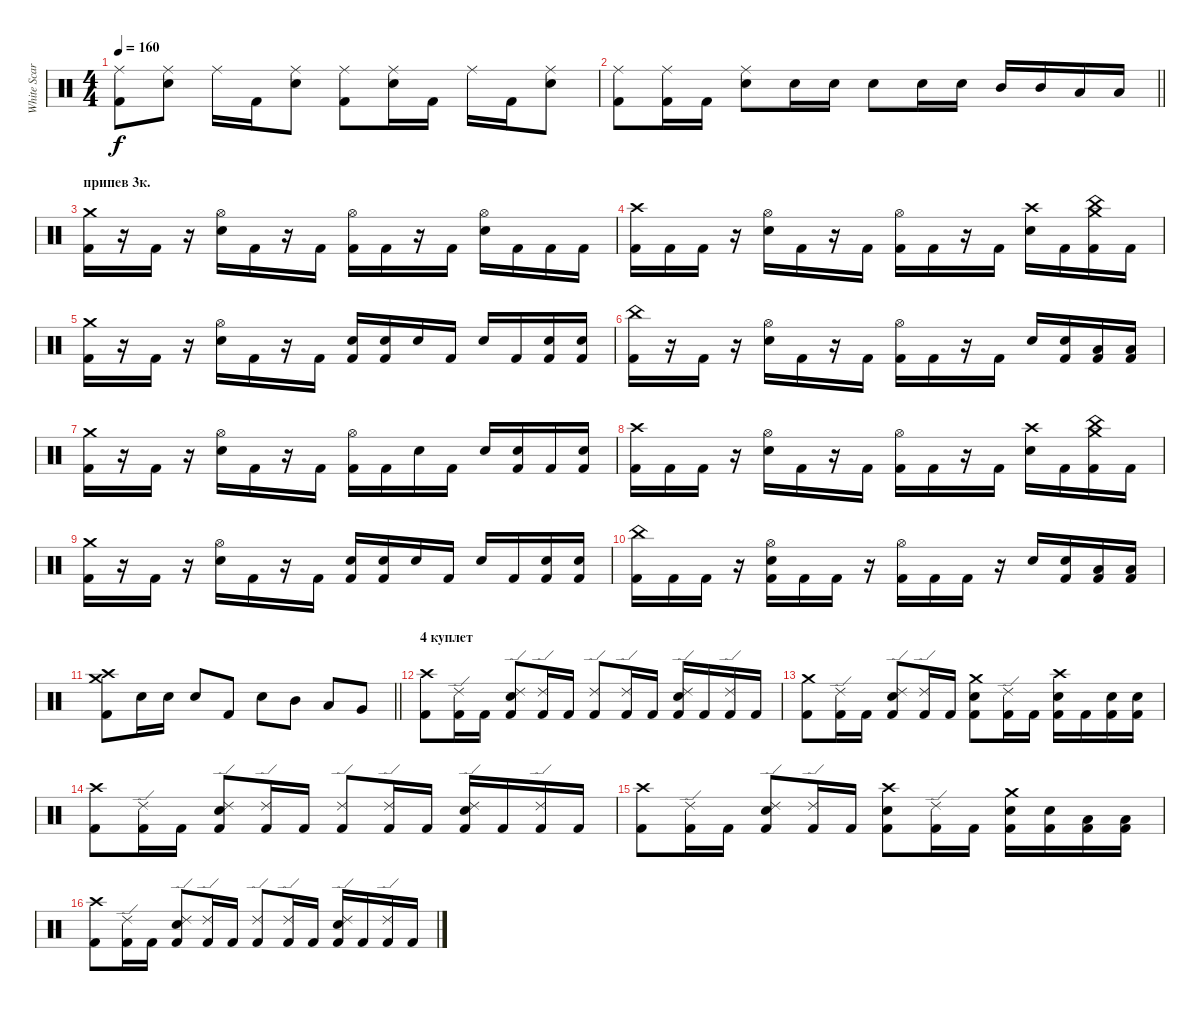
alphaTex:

\track ("White Scar" "White Scar") {instrument percussion}
\staff {score}
\articulation defaults
\ts (4 4)
\tempo 160
\clef neutral
\ks c
("Ride (middle)" "Kick (hit) 2").8{dy f} ("Ride (middle)" "Snare (hit) 2").8 "Ride (middle)".16 "Kick (hit) 2".16 ("Ride (middle)" "Snare (hit) 2").8 ("Ride (middle)" "Kick (hit) 2").8 ("Ride (middle)" "Snare (hit) 2").16 "Kick (hit) 2".16 "Ride (middle)".16 "Kick (hit) 2".16 ("Ride (middle)" "Snare (hit) 2").8 |
\barLineRight lightlight
("Ride (middle)" "Kick (hit) 2").8 ("Ride (middle)" "Kick (hit) 2").16 "Kick (hit) 2".16 ("Ride (middle)" "Snare (hit) 2").8 "Snare (hit) 2".16 "Snare (hit) 2".16 "Snare (hit) 2".8 "Snare (hit) 2".16 "Snare (hit) 2".16 "Mid Tom (hit)".16 "Mid Tom (hit)".16 "Low Tom (hit)".16 "Low Tom (hit)".16 |
\section ("" "припев 3к.")
("Crash medium (hit)" "Kick (hit) 2").16 r.16 "Kick (hit) 2".16 r.16 ("Hi-Hat (open)" "Snare (hit) 2").16 "Kick (hit) 2".16 r.16 "Kick (hit) 2".16 ("Hi-Hat (open)" "Kick (hit) 2").16 "Kick (hit) 2".16 r.16 "Kick (hit) 2".16 ("Hi-Hat (open)" "Snare (hit) 2").16 "Kick (hit) 2".16 "Kick (hit) 2".16 "Kick (hit) 2".16 |
("Crash high (hit)" "Kick (hit) 2").16 "Kick (hit) 2".16 "Kick (hit) 2".16 r.16 ("Hi-Hat (open)" "Snare (hit) 2").16 "Kick (hit) 2".16 r.16 "Kick (hit) 2".16 ("Hi-Hat (open)" "Kick (hit) 2").16 "Kick (hit) 2".16 r.16 "Kick (hit) 2".16 ("Crash high (hit)" "Snare (hit) 2").16 "Kick (hit) 2".16 ("China (hit)" "Crash medium (hit)" "Kick (hit) 2").16 "Kick (hit) 2".16 |
("Crash medium (hit)" "Kick (hit) 2").16 r.16 "Kick (hit) 2".16 r.16 ("Hi-Hat (open)" "Snare (hit) 2").16 "Kick (hit) 2".16 r.16 "Kick (hit) 2".16 ("Snare (hit) 2" "Kick (hit) 2").16 ("Snare (hit) 2" "Kick (hit) 2").16 "Snare (hit) 2".16 "Kick (hit) 2".16 "Snare (hit) 2".16 "Kick (hit) 2".16 ("Snare (hit) 2" "Kick (hit) 2").16 ("Snare (hit) 2" "Kick (hit) 2").16 |
("China (hit)" "Kick (hit) 2").16 r.16 "Kick (hit) 2".16 r.16 ("Hi-Hat (open)" "Snare (hit) 2").16 "Kick (hit) 2".16 r.16 "Kick (hit) 2".16 ("Hi-Hat (open)" "Kick (hit) 2").16 "Kick (hit) 2".16 r.16 "Kick (hit) 2".16 "Snare (hit) 2".16 ("Snare (hit) 2" "Kick (hit) 2").16 ("Low Tom (hit)" "Kick (hit) 2").16 ("Low Tom (hit)" "Kick (hit) 2").16 |
("Crash medium (hit)" "Kick (hit) 2").16 r.16 "Kick (hit) 2".16 r.16 ("Hi-Hat (open)" "Snare (hit) 2").16 "Kick (hit) 2".16 r.16 "Kick (hit) 2".16 ("Hi-Hat (open)" "Kick (hit) 2").16 "Kick (hit) 2".16 "Snare (hit) 2".16 "Kick (hit) 2".16 "Snare (hit) 2".16 ("Snare (hit) 2" "Kick (hit) 2").16 "Kick (hit) 2".16 ("Snare (hit) 2" "Kick (hit) 2").16 |
("Crash high (hit)" "Kick (hit) 2").16 "Kick (hit) 2".16 "Kick (hit) 2".16 r.16 ("Hi-Hat (open)" "Snare (hit) 2").16 "Kick (hit) 2".16 r.16 "Kick (hit) 2".16 ("Hi-Hat (open)" "Kick (hit) 2").16 "Kick (hit) 2".16 r.16 "Kick (hit) 2".16 ("Crash high (hit)" "Snare (hit) 2").16 "Kick (hit) 2".16 ("China (hit)" "Crash medium (hit)" "Kick (hit) 2").16 "Kick (hit) 2".16 |
("Crash medium (hit)" "Kick (hit) 2").16 r.16 "Kick (hit) 2".16 r.16 ("Hi-Hat (open)" "Snare (hit) 2").16 "Kick (hit) 2".16 r.16 "Kick (hit) 2".16 ("Snare (hit) 2" "Kick (hit) 2").16 ("Snare (hit) 2" "Kick (hit) 2").16 "Snare (hit) 2".16 "Kick (hit) 2".16 "Snare (hit) 2".16 "Kick (hit) 2".16 ("Snare (hit) 2" "Kick (hit) 2").16 ("Snare (hit) 2" "Kick (hit) 2").16 |
("China (hit)" "Kick (hit) 2").16 "Kick (hit) 2".16 "Kick (hit) 2".16 r.16 ("Hi-Hat (open)" "Snare (hit) 2" "Kick (hit) 2").16 "Kick (hit) 2".16 "Kick (hit) 2".16 r.16 ("Hi-Hat (open)" "Kick (hit) 2").16 "Kick (hit) 2".16 "Kick (hit) 2".16 r.16 "Snare (hit) 2".16 ("Snare (hit) 2" "Kick (hit) 2").16 ("Low Tom (hit)" "Kick (hit) 2").16 ("Low Tom (hit)" "Kick (hit) 2").16 |
\barLineRight lightlight
("Crash medium (hit)" "Crash high (hit)" "Kick (hit) 2").8 "Snare (hit) 2".16 "Snare (hit) 2".16 "Snare (hit) 2".8 "Kick (hit) 2".8 "Snare (hit) 2".8 "Mid Tom (hit)".8 "Low Tom (hit)".8 "Very Low Tom (hit)".8 |
\section ("" "4 куплет")
("Crash high (hit)" "Kick (hit) 2").8 ("Ride (edge) 2" "Kick (hit) 2").16 "Kick (hit) 2".16 ("Ride (edge) 2" "Snare (hit) 2" "Kick (hit) 2").8 ("Ride (edge) 2" "Kick (hit) 2").16 "Kick (hit) 2".16 ("Ride (edge) 2" "Kick (hit) 2").8 ("Ride (edge) 2" "Kick (hit) 2").16 "Kick (hit) 2".16 ("Ride (edge) 2" "Snare (hit) 2" "Kick (hit) 2").16 "Kick (hit) 2".16 ("Ride (edge) 2" "Kick (hit) 2").16 "Kick (hit) 2".16 |
("Crash medium (hit)" "Kick (hit) 2").8 ("Ride (edge) 2" "Kick (hit) 2").16 "Kick (hit) 2".16 ("Ride (edge) 2" "Snare (hit) 2" "Kick (hit) 2").8 ("Ride (edge) 2" "Kick (hit) 2").16 "Kick (hit) 2".16 ("Crash medium (hit)" "Snare (hit) 2" "Kick (hit) 2").8 ("Ride (edge) 2" "Kick (hit) 2").16 "Kick (hit) 2".16 ("Crash high (hit)" "Snare (hit) 2" "Kick (hit) 2").16 "Kick (hit) 2".16 ("Snare (hit) 2" "Kick (hit) 2").16 ("Snare (hit) 2" "Kick (hit) 2").16 |
("Crash high (hit)" "Kick (hit) 2").8 ("Ride (edge) 2" "Kick (hit) 2").16 "Kick (hit) 2".16 ("Ride (edge) 2" "Snare (hit) 2" "Kick (hit) 2").8 ("Ride (edge) 2" "Kick (hit) 2").16 "Kick (hit) 2".16 ("Ride (edge) 2" "Kick (hit) 2").8 ("Ride (edge) 2" "Kick (hit) 2").16 "Kick (hit) 2".16 ("Ride (edge) 2" "Snare (hit) 2" "Kick (hit) 2").16 "Kick (hit) 2".16 ("Ride (edge) 2" "Kick (hit) 2").16 "Kick (hit) 2".16 |
("Crash high (hit)" "Kick (hit) 2").8 ("Ride (edge) 2" "Kick (hit) 2").16 "Kick (hit) 2".16 ("Ride (edge) 2" "Snare (hit) 2" "Kick (hit) 2").8 ("Ride (edge) 2" "Kick (hit) 2").16 "Kick (hit) 2".16 ("Crash high (hit)" "Snare (hit) 2" "Kick (hit) 2").8 ("Ride (edge) 2" "Kick (hit) 2").16 "Kick (hit) 2".16 ("Crash medium (hit)" "Snare (hit) 2" "Kick (hit) 2").16 ("Snare (hit) 2" "Kick (hit) 2").16 ("Low Tom (hit)" "Kick (hit) 2").16 ("Low Tom (hit)" "Kick (hit) 2").16 |
("Crash high (hit)" "Kick (hit) 2").8 ("Ride (edge) 2" "Kick (hit) 2").16 "Kick (hit) 2".16 ("Ride (edge) 2" "Snare (hit) 2" "Kick (hit) 2").8 ("Ride (edge) 2" "Kick (hit) 2").16 "Kick (hit) 2".16 ("Ride (edge) 2" "Kick (hit) 2").8 ("Ride (edge) 2" "Kick (hit) 2").16 "Kick (hit) 2".16 ("Ride (edge) 2" "Snare (hit) 2" "Kick (hit) 2").16 "Kick (hit) 2".16 ("Ride (edge) 2" "Kick (hit) 2").16 "Kick (hit) 2".16
